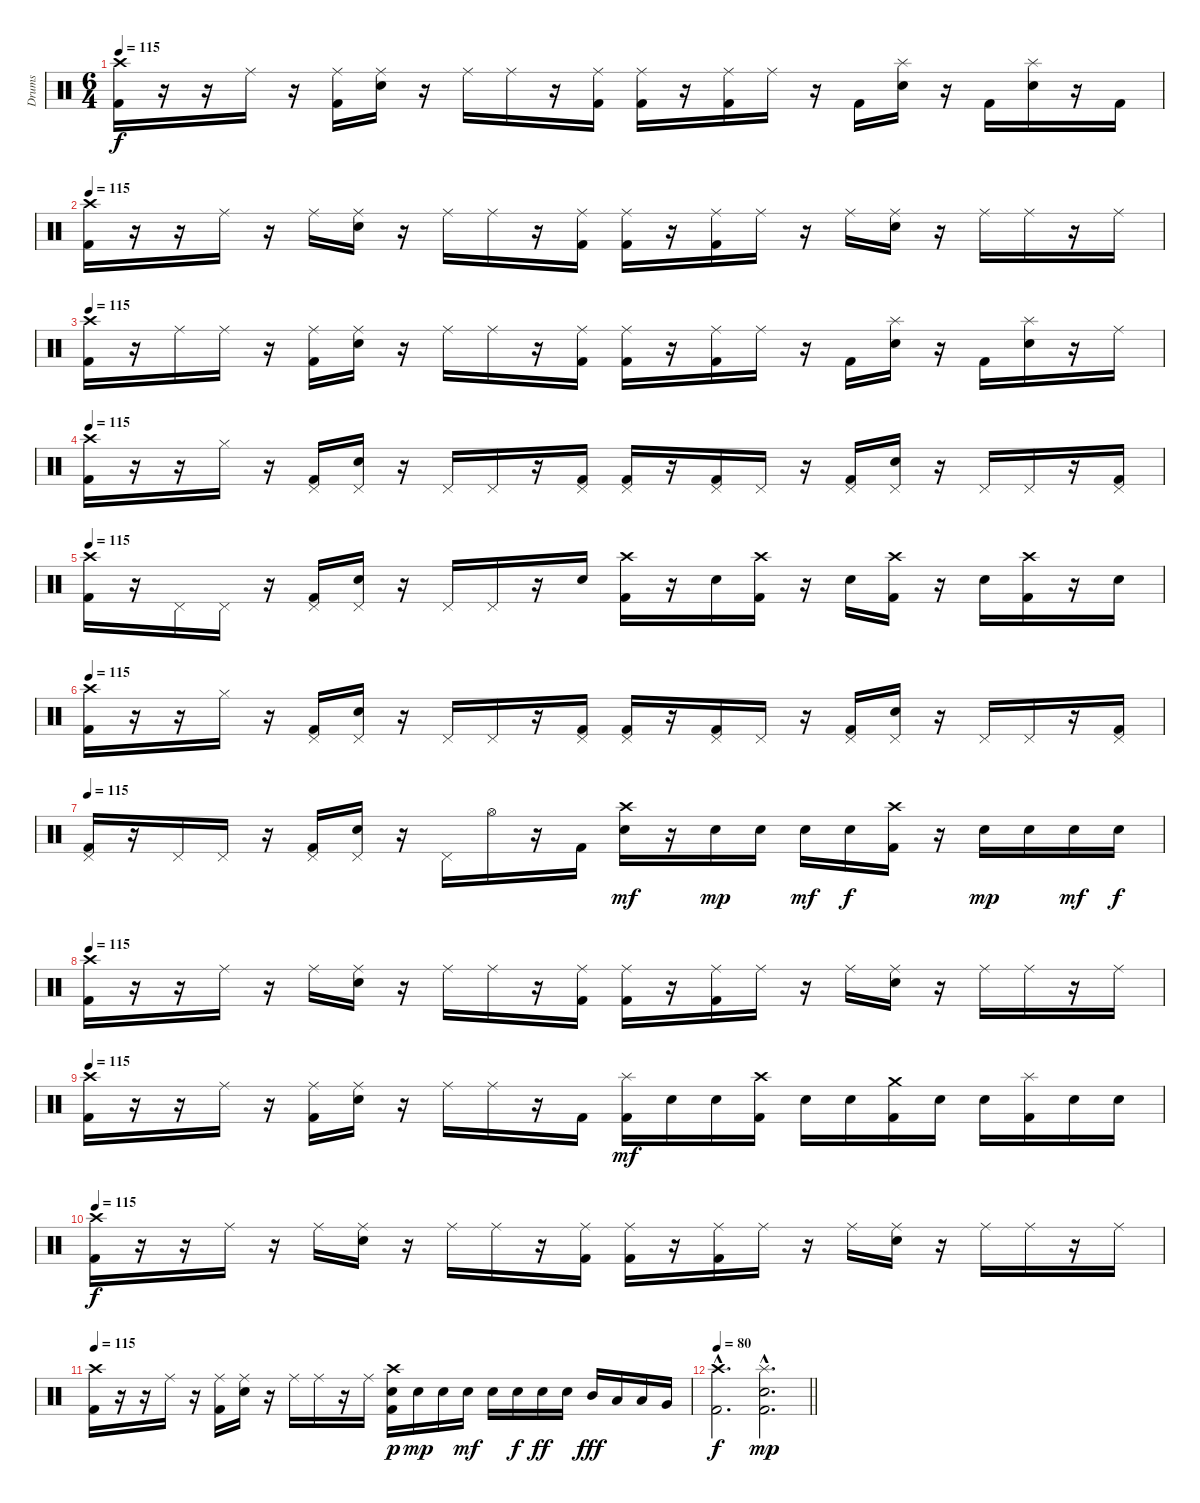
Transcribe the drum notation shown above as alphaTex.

\track ("Drums" "Drums") {instrument percussion}
\staff {score}
\articulation defaults
\ts (6 4)
\tempo 115
\clef neutral
\ks c
("Crash high (hit)" "Kick (hit) 2").16{dy f} r.16 r.16 "Ride (middle)".16 r.16 ("Ride (middle)" "Kick (hit) 2").16 ("Ride (middle)" "Electric Snare (hit)").16 r.16 "Ride (middle)".16 "Ride (middle)".16 r.16 ("Ride (middle)" "Kick (hit) 2").16 ("Ride (middle)" "Kick (hit) 2").16 r.16 ("Ride (middle)" "Kick (hit) 2").16 "Ride (middle)".16 r.16 "Kick (hit) 2".16 ("Splash (hit)" "Electric Snare (hit)").16 r.16 "Kick (hit) 2".16 ("Splash (hit)" "Electric Snare (hit)").16 r.16 "Kick (hit) 2".16 |
\tempo 115
("Crash high (hit)" "Kick (hit) 2").16 r.16 r.16 "Ride (middle)".16 r.16 "Ride (middle)".16 ("Ride (middle)" "Electric Snare (hit)").16 r.16 "Ride (middle)".16 "Ride (middle)".16 r.16 ("Ride (middle)" "Kick (hit) 2").16 ("Ride (middle)" "Kick (hit) 2").16 r.16 ("Ride (middle)" "Kick (hit) 2").16 "Ride (middle)".16 r.16 "Ride (middle)".16 ("Ride (middle)" "Electric Snare (hit)").16 r.16 "Ride (middle)".16 "Ride (middle)".16 r.16 "Ride (middle)".16 |
\tempo 115
("Crash high (hit)" "Kick (hit) 2").16 r.16 "Ride (middle)".16 "Ride (middle)".16 r.16 ("Ride (middle)" "Kick (hit) 2").16 ("Ride (middle)" "Electric Snare (hit)").16 r.16 "Ride (middle)".16 "Ride (middle)".16 r.16 ("Ride (middle)" "Kick (hit) 2").16 ("Ride (middle)" "Kick (hit) 2").16 r.16 ("Ride (middle)" "Kick (hit) 2").16 "Ride (middle)".16 r.16 "Kick (hit) 2".16 ("Splash (hit)" "Electric Snare (hit)").16 r.16 "Kick (hit) 2".16 ("Splash (hit)" "Electric Snare (hit)").16 r.16 "Ride (middle)".16 |
\tempo 115
("Crash high (hit)" "Kick (hit) 2").16 r.16 r.16 "Hi-Hat (closed)".16 r.16 ("Pedal Hi-Hat (hit)" "Kick (hit) 2").16 ("Pedal Hi-Hat (hit)" "Electric Snare (hit)").16 r.16 "Pedal Hi-Hat (hit)".16 "Pedal Hi-Hat (hit)".16 r.16 ("Pedal Hi-Hat (hit)" "Kick (hit) 2").16 ("Pedal Hi-Hat (hit)" "Kick (hit) 2").16 r.16 ("Pedal Hi-Hat (hit)" "Kick (hit) 2").16 "Pedal Hi-Hat (hit)".16 r.16 ("Pedal Hi-Hat (hit)" "Kick (hit) 2").16 ("Pedal Hi-Hat (hit)" "Electric Snare (hit)").16 r.16 "Pedal Hi-Hat (hit)".16 "Pedal Hi-Hat (hit)".16 r.16 ("Pedal Hi-Hat (hit)" "Kick (hit) 2").16 |
\tempo 115
("Crash high (hit)" "Kick (hit) 2").16 r.16 "Pedal Hi-Hat (hit)".16 "Pedal Hi-Hat (hit)".16 r.16 ("Pedal Hi-Hat (hit)" "Kick (hit) 2").16 ("Pedal Hi-Hat (hit)" "Electric Snare (hit)").16 r.16 "Pedal Hi-Hat (hit)".16 "Pedal Hi-Hat (hit)".16 r.16 "Electric Snare (hit)".16 ("Crash high (hit)" "Kick (hit) 2").16 r.16 "Electric Snare (hit)".16 ("Crash high (hit)" "Kick (hit) 2").16 r.16 "Electric Snare (hit)".16 ("Crash high (hit)" "Kick (hit) 2").16 r.16 "Electric Snare (hit)".16 ("Crash high (hit)" "Kick (hit) 2").16 r.16 "Electric Snare (hit)".16 |
\tempo 115
("Crash high (hit)" "Kick (hit) 2").16 r.16 r.16 "Hi-Hat (closed)".16 r.16 ("Pedal Hi-Hat (hit)" "Kick (hit) 2").16 ("Pedal Hi-Hat (hit)" "Electric Snare (hit)").16 r.16 "Pedal Hi-Hat (hit)".16 "Pedal Hi-Hat (hit)".16 r.16 ("Pedal Hi-Hat (hit)" "Kick (hit) 2").16 ("Pedal Hi-Hat (hit)" "Kick (hit) 2").16 r.16 ("Pedal Hi-Hat (hit)" "Kick (hit) 2").16 "Pedal Hi-Hat (hit)".16 r.16 ("Pedal Hi-Hat (hit)" "Kick (hit) 2").16 ("Pedal Hi-Hat (hit)" "Electric Snare (hit)").16 r.16 "Pedal Hi-Hat (hit)".16 "Pedal Hi-Hat (hit)".16 r.16 ("Pedal Hi-Hat (hit)" "Kick (hit) 2").16 |
\tempo 115
("Pedal Hi-Hat (hit)" "Kick (hit) 2").16 r.16 "Pedal Hi-Hat (hit)".16 "Pedal Hi-Hat (hit)".16 r.16 ("Pedal Hi-Hat (hit)" "Kick (hit) 2").16 ("Pedal Hi-Hat (hit)" "Electric Snare (hit)").16 r.16 "Pedal Hi-Hat (hit)".16 "Hi-Hat (open)".16 r.16 "Kick (hit) 2".16 ("Crash high (hit)" "Electric Snare (hit)").16{dy mf} r.16 "Electric Snare (hit)".16{dy mp} "Electric Snare (hit)".16 "Electric Snare (hit)".16{dy mf} "Electric Snare (hit)".16{dy f} ("Crash high (hit)" "Kick (hit) 2").16 r.16 "Electric Snare (hit)".16{dy mp} "Electric Snare (hit)".16 "Electric Snare (hit)".16{dy mf} "Electric Snare (hit)".16{dy f} |
\tempo 115
("Crash high (hit)" "Kick (hit) 2").16 r.16 r.16 "Ride (middle)".16 r.16 "Ride (middle)".16 ("Ride (middle)" "Electric Snare (hit)").16 r.16 "Ride (middle)".16 "Ride (middle)".16 r.16 ("Ride (middle)" "Kick (hit) 2").16 ("Ride (middle)" "Kick (hit) 2").16 r.16 ("Ride (middle)" "Kick (hit) 2").16 "Ride (middle)".16 r.16 "Ride (middle)".16 ("Ride (middle)" "Electric Snare (hit)").16 r.16 "Ride (middle)".16 "Ride (middle)".16 r.16 "Ride (middle)".16 |
\tempo 115
("Crash high (hit)" "Kick (hit) 2").16 r.16 r.16 "Ride (middle)".16 r.16 ("Ride (middle)" "Kick (hit) 2").16 ("Ride (middle)" "Electric Snare (hit)").16 r.16 "Ride (middle)".16 "Ride (middle)".16 r.16 "Kick (hit) 2".16 ("Splash (hit)" "Kick (hit) 2").16{dy mf} "Electric Snare (hit)".16 "Electric Snare (hit)".16 ("Crash high (hit)" "Kick (hit) 2").16 "Electric Snare (hit)".16 "Electric Snare (hit)".16 ("Crash medium (hit)" "Kick (hit) 2").16 "Electric Snare (hit)".16 "Electric Snare (hit)".16 ("Splash (hit)" "Kick (hit) 2").16 "Electric Snare (hit)".16 "Electric Snare (hit)".16 |
\tempo 115
("Crash high (hit)" "Kick (hit) 2").16{dy f} r.16 r.16 "Ride (middle)".16 r.16 "Ride (middle)".16 ("Ride (middle)" "Electric Snare (hit)").16 r.16 "Ride (middle)".16 "Ride (middle)".16 r.16 ("Ride (middle)" "Kick (hit) 2").16 ("Ride (middle)" "Kick (hit) 2").16 r.16 ("Ride (middle)" "Kick (hit) 2").16 "Ride (middle)".16 r.16 "Ride (middle)".16 ("Ride (middle)" "Electric Snare (hit)").16 r.16 "Ride (middle)".16 "Ride (middle)".16 r.16 "Ride (middle)".16 |
\tempo 115
("Crash high (hit)" "Kick (hit) 2").16 r.16 r.16 "Ride (middle)".16 r.16 ("Ride (middle)" "Kick (hit) 2").16 ("Ride (middle)" "Electric Snare (hit)").16 r.16 "Ride (middle)".16 "Ride (middle)".16 r.16 "Ride (middle)".16 ("Crash high (hit)" "Electric Snare (hit)" "Kick (hit) 2").16{dy p} "Electric Snare (hit)".16{dy mp} "Electric Snare (hit)".16 "Electric Snare (hit)".16{dy mf} "Electric Snare (hit)".16 "Electric Snare (hit)".16{dy f} "Electric Snare (hit)".16{dy ff} "Electric Snare (hit)".16 "Mid Tom (hit)".16{dy fff} "Low Tom (hit)".16 "Low Tom (hit)".16 "Very Low Tom (hit)".16 |
\tempo 80
\barLineRight lightlight
("Crash high (hit)"{hac} "Kick (hit) 2"{hac}).2{d dy f} ("Splash (hit)"{hac} "Electric Snare (hit)"{hac} "Kick (hit) 2"{hac}).2{d dy mp}
